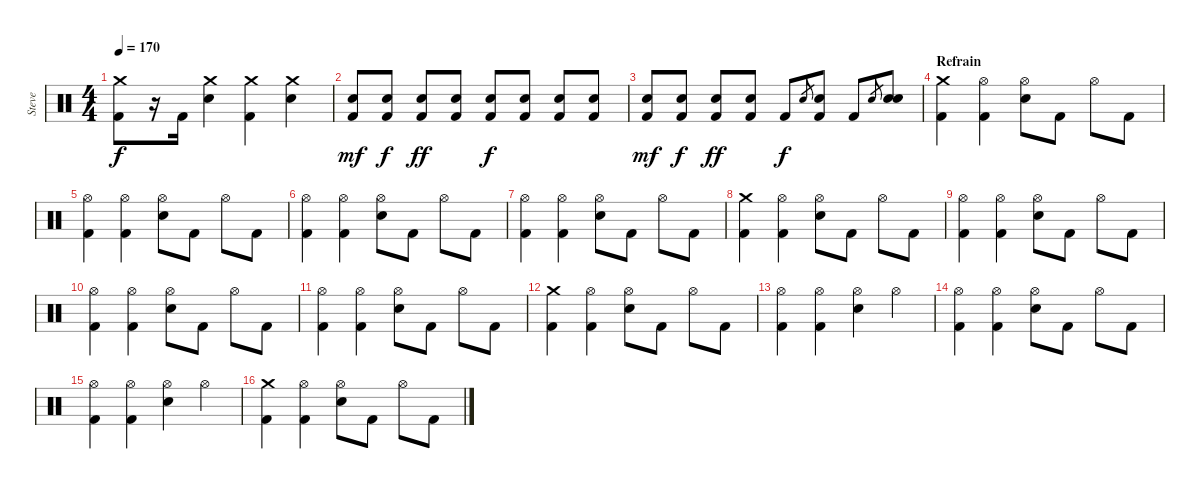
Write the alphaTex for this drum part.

\track ("Steve" "Steve") {instrument percussion}
\staff {score}
\articulation defaults
\ts (4 4)
\tempo 170
\clef neutral
\ks c
("Crash medium (hit)" "Kick (hit) 2").8{dy f} r.16 "Kick (hit) 2".16 ("Crash medium (hit)" "Electric Snare (hit)").4 ("Crash medium (hit)" "Kick (hit) 2").4 ("Crash medium (hit)" "Electric Snare (hit)").4 |
("Electric Snare (hit)" "Kick (hit) 2").8{dy mf} ("Electric Snare (hit)" "Kick (hit) 2").8{dy f} ("Electric Snare (hit)" "Kick (hit) 2").8{dy ff} ("Electric Snare (hit)" "Kick (hit) 2").8 ("Electric Snare (hit)" "Kick (hit) 2").8{dy f} ("Electric Snare (hit)" "Kick (hit) 2").8 ("Electric Snare (hit)" "Kick (hit) 2").8 ("Electric Snare (hit)" "Kick (hit) 2").8 |
("Electric Snare (hit)" "Kick (hit) 2").8{dy mf} ("Electric Snare (hit)" "Kick (hit) 2").8{dy f} ("Electric Snare (hit)" "Kick (hit) 2").8{dy ff} ("Electric Snare (hit)" "Kick (hit) 2").8 "Kick (hit) 2".8{dy f} "Electric Snare (hit)".8{gr} ("Electric Snare (hit)" "Kick (hit) 2").8 "Kick (hit) 2".8 "Electric Snare (hit)".8{gr} ("Electric Snare (hit)" "Electric Snare (hit)").8 |
\section ("" "Refrain")
("Crash medium (hit)" "Kick (hit) 2").4 ("Hi-Hat (open)" "Kick (hit) 2").4 ("Electric Snare (hit)" "Hi-Hat (open)").8 "Kick (hit) 2".8 "Hi-Hat (open)".8 "Kick (hit) 2".8 |
("Hi-Hat (open)" "Kick (hit) 2").4 ("Hi-Hat (open)" "Kick (hit) 2").4 ("Electric Snare (hit)" "Hi-Hat (open)").8 "Kick (hit) 2".8 "Hi-Hat (open)".8 "Kick (hit) 2".8 |
("Hi-Hat (open)" "Kick (hit) 2").4 ("Hi-Hat (open)" "Kick (hit) 2").4 ("Electric Snare (hit)" "Hi-Hat (open)").8 "Kick (hit) 2".8 "Hi-Hat (open)".8 "Kick (hit) 2".8 |
("Hi-Hat (open)" "Kick (hit) 2").4 ("Hi-Hat (open)" "Kick (hit) 2").4 ("Electric Snare (hit)" "Hi-Hat (open)").8 "Kick (hit) 2".8 "Hi-Hat (open)".8 "Kick (hit) 2".8 |
("Crash medium (hit)" "Kick (hit) 2").4 ("Hi-Hat (open)" "Kick (hit) 2").4 ("Electric Snare (hit)" "Hi-Hat (open)").8 "Kick (hit) 2".8 "Hi-Hat (open)".8 "Kick (hit) 2".8 |
("Hi-Hat (open)" "Kick (hit) 2").4 ("Hi-Hat (open)" "Kick (hit) 2").4 ("Electric Snare (hit)" "Hi-Hat (open)").8 "Kick (hit) 2".8 "Hi-Hat (open)".8 "Kick (hit) 2".8 |
("Hi-Hat (open)" "Kick (hit) 2").4 ("Hi-Hat (open)" "Kick (hit) 2").4 ("Electric Snare (hit)" "Hi-Hat (open)").8 "Kick (hit) 2".8 "Hi-Hat (open)".8 "Kick (hit) 2".8 |
("Hi-Hat (open)" "Kick (hit) 2").4 ("Hi-Hat (open)" "Kick (hit) 2").4 ("Electric Snare (hit)" "Hi-Hat (open)").8 "Kick (hit) 2".8 "Hi-Hat (open)".8 "Kick (hit) 2".8 |
("Crash medium (hit)" "Kick (hit) 2").4 ("Hi-Hat (open)" "Kick (hit) 2").4 ("Electric Snare (hit)" "Hi-Hat (open)").8 "Kick (hit) 2".8 "Hi-Hat (open)".8 "Kick (hit) 2".8 |
("Hi-Hat (open)" "Kick (hit) 2").4 ("Hi-Hat (open)" "Kick (hit) 2").4 ("Electric Snare (hit)" "Hi-Hat (open)").4 "Hi-Hat (open)".4 |
("Hi-Hat (open)" "Kick (hit) 2").4 ("Hi-Hat (open)" "Kick (hit) 2").4 ("Electric Snare (hit)" "Hi-Hat (open)").8 "Kick (hit) 2".8 "Hi-Hat (open)".8 "Kick (hit) 2".8 |
("Hi-Hat (open)" "Kick (hit) 2").4 ("Hi-Hat (open)" "Kick (hit) 2").4 ("Electric Snare (hit)" "Hi-Hat (open)").4 "Hi-Hat (open)".4 |
("Crash medium (hit)" "Kick (hit) 2").4 ("Hi-Hat (open)" "Kick (hit) 2").4 ("Electric Snare (hit)" "Hi-Hat (open)").8 "Kick (hit) 2".8 "Hi-Hat (open)".8 "Kick (hit) 2".8
